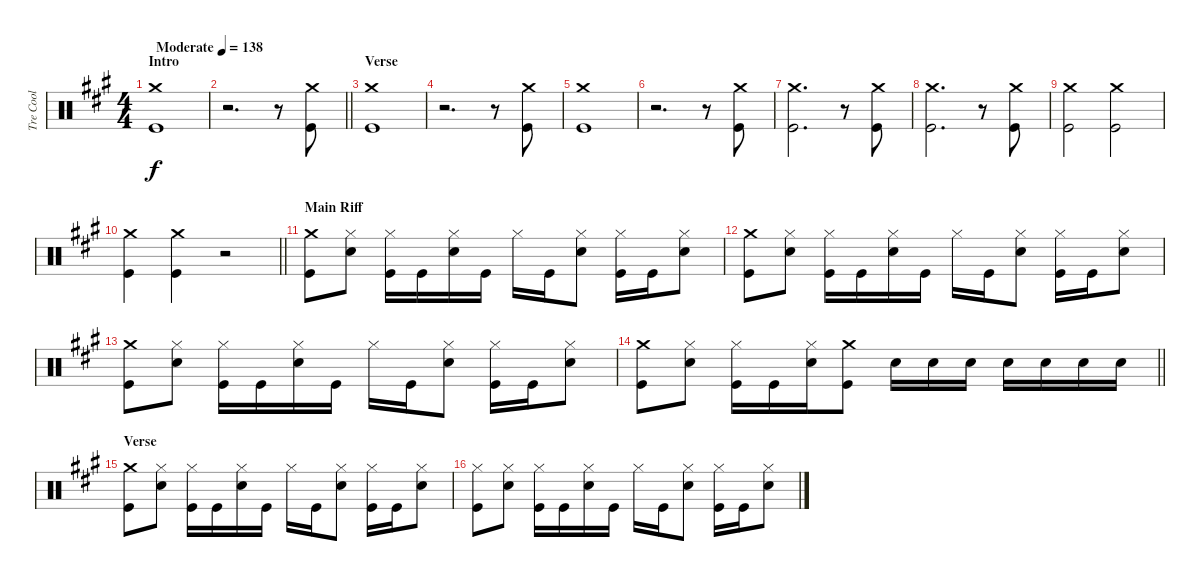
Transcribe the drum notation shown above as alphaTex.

\track ("Tre Cool" "Tre Cool") {instrument percussion}
\staff {score}
\articulation defaults
\ts (4 4)
\section ("" "Intro")
\tempo (138 "Moderate")
\clef neutral
\ks a
("Crash medium (hit)" "Kick (hit)").1{dy f} |
\barLineRight lightlight
r.2{d} r.8 ("Crash medium (hit)" "Kick (hit)").8 |
\section ("" "Verse")
("Crash medium (hit)" "Kick (hit)").1 |
r.2{d} r.8 ("Crash medium (hit)" "Kick (hit)").8 |
("Crash medium (hit)" "Kick (hit)").1 |
r.2{d} r.8 ("Crash medium (hit)" "Kick (hit)").8 |
("Crash medium (hit)" "Kick (hit)").2{d} r.8 ("Crash medium (hit)" "Kick (hit)").8 |
("Crash medium (hit)" "Kick (hit)").2{d} r.8 ("Crash medium (hit)" "Kick (hit)").8 |
("Crash medium (hit)" "Kick (hit)").2 ("Crash medium (hit)" "Kick (hit)").2 |
\barLineRight lightlight
("Crash medium (hit)" "Kick (hit)").4 ("Crash medium (hit)" "Kick (hit)").4 r.2 |
\section ("" "Main Riff")
("Crash medium (hit)" "Kick (hit)").8 ("Hi-Hat (closed)" "Electric Snare (hit)").8 ("Hi-Hat (closed)" "Kick (hit)").16 "Kick (hit)".16 ("Hi-Hat (closed)" "Electric Snare (hit)").16 "Kick (hit)".16 "Hi-Hat (closed)".16 "Kick (hit)".16 ("Hi-Hat (closed)" "Electric Snare (hit)").8 ("Hi-Hat (closed)" "Kick (hit)").16 "Kick (hit)".16 ("Hi-Hat (closed)" "Electric Snare (hit)").8 |
("Crash medium (hit)" "Kick (hit)").8 ("Hi-Hat (closed)" "Electric Snare (hit)").8 ("Hi-Hat (closed)" "Kick (hit)").16 "Kick (hit)".16 ("Hi-Hat (closed)" "Electric Snare (hit)").16 "Kick (hit)".16 "Hi-Hat (closed)".16 "Kick (hit)".16 ("Hi-Hat (closed)" "Electric Snare (hit)").8 ("Hi-Hat (closed)" "Kick (hit)").16 "Kick (hit)".16 ("Hi-Hat (closed)" "Electric Snare (hit)").8 |
("Crash medium (hit)" "Kick (hit)").8 ("Hi-Hat (closed)" "Electric Snare (hit)").8 ("Hi-Hat (closed)" "Kick (hit)").16 "Kick (hit)".16 ("Hi-Hat (closed)" "Electric Snare (hit)").16 "Kick (hit)".16 "Hi-Hat (closed)".16 "Kick (hit)".16 ("Hi-Hat (closed)" "Electric Snare (hit)").8 ("Hi-Hat (closed)" "Kick (hit)").16 "Kick (hit)".16 ("Hi-Hat (closed)" "Electric Snare (hit)").8 |
\barLineRight lightlight
("Crash medium (hit)" "Kick (hit)").8 ("Hi-Hat (closed)" "Electric Snare (hit)").8 ("Hi-Hat (closed)" "Kick (hit)").16 "Kick (hit)".16 ("Hi-Hat (closed)" "Electric Snare (hit)").16 ("Crash medium (hit)" "Kick (hit)").8 "Electric Snare (hit)".16 "Electric Snare (hit)".16 "Electric Snare (hit)".16 "Electric Snare (hit)".16 "Electric Snare (hit)".16 "Electric Snare (hit)".16 "Electric Snare (hit)".16 |
\section ("" "Verse")
("Crash medium (hit)" "Kick (hit)").8 ("Hi-Hat (closed)" "Electric Snare (hit)").8 ("Hi-Hat (closed)" "Kick (hit)").16 "Kick (hit)".16 ("Hi-Hat (closed)" "Electric Snare (hit)").16 "Kick (hit)".16 "Hi-Hat (closed)".16 "Kick (hit)".16 ("Hi-Hat (closed)" "Electric Snare (hit)").8 ("Hi-Hat (closed)" "Kick (hit)").16 "Kick (hit)".16 ("Hi-Hat (closed)" "Electric Snare (hit)").8 |
("Hi-Hat (closed)" "Kick (hit)").8 ("Hi-Hat (closed)" "Electric Snare (hit)").8 ("Hi-Hat (closed)" "Kick (hit)").16 "Kick (hit)".16 ("Hi-Hat (closed)" "Electric Snare (hit)").16 "Kick (hit)".16 "Hi-Hat (closed)".16 "Kick (hit)".16 ("Hi-Hat (closed)" "Electric Snare (hit)").8 ("Hi-Hat (closed)" "Kick (hit)").16 "Kick (hit)".16 ("Hi-Hat (closed)" "Electric Snare (hit)").8
